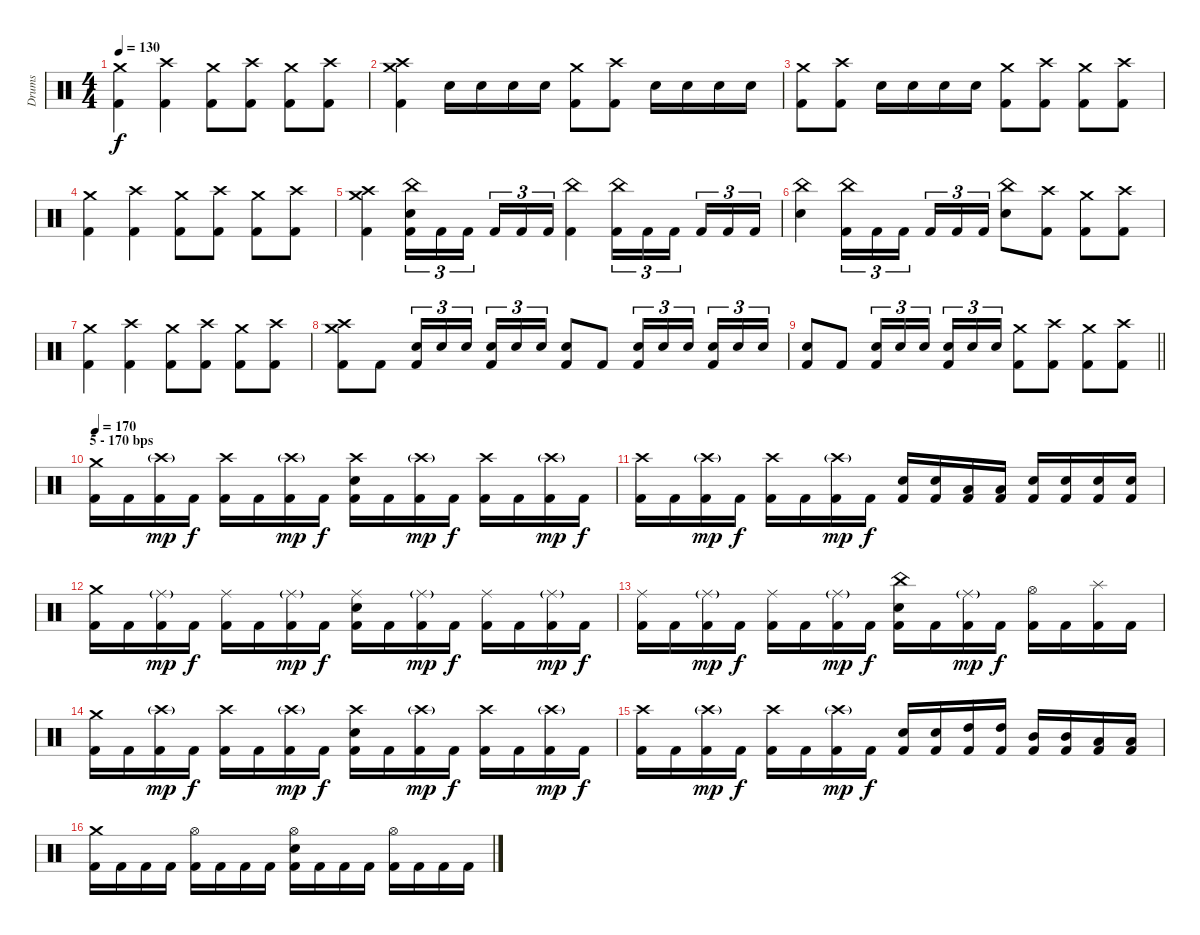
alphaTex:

\track ("Drums" "Drums") {instrument percussion}
\staff {score}
\articulation defaults
\ts (4 4)
\tempo 130
\clef neutral
\ks c
("Crash medium (hit)" "Kick (hit) 2").4{dy f} ("Crash high (hit)" "Kick (hit) 2").4 ("Crash medium (hit)" "Kick (hit) 2").8 ("Crash high (hit)" "Kick (hit) 2").8 ("Crash medium (hit)" "Kick (hit) 2").8 ("Crash high (hit)" "Kick (hit) 2").8 |
("Crash medium (hit)" "Crash high (hit)" "Kick (hit) 2").4 "Snare (hit) 2".16 "Snare (hit) 2".16 "Snare (hit) 2".16 "Snare (hit) 2".16 ("Crash medium (hit)" "Kick (hit) 2").8 ("Crash high (hit)" "Kick (hit) 2").8 "Snare (hit) 2".16 "Snare (hit) 2".16 "Snare (hit) 2".16 "Snare (hit) 2".16 |
("Crash medium (hit)" "Kick (hit) 2").8 ("Crash high (hit)" "Kick (hit) 2").8 "Snare (hit) 2".16 "Snare (hit) 2".16 "Snare (hit) 2".16 "Snare (hit) 2".16 ("Crash medium (hit)" "Kick (hit) 2").8 ("Crash high (hit)" "Kick (hit) 2").8 ("Crash medium (hit)" "Kick (hit) 2").8 ("Crash high (hit)" "Kick (hit) 2").8 |
("Crash medium (hit)" "Kick (hit) 2").4 ("Crash high (hit)" "Kick (hit) 2").4 ("Crash medium (hit)" "Kick (hit) 2").8 ("Crash high (hit)" "Kick (hit) 2").8 ("Crash medium (hit)" "Kick (hit) 2").8 ("Crash high (hit)" "Kick (hit) 2").8 |
("Crash medium (hit)" "Crash high (hit)" "Kick (hit) 2").4 ("China (hit)" "Snare (hit) 2" "Kick (hit) 2").16{tu (3 2)} "Kick (hit) 2".16{tu (3 2)} "Kick (hit) 2".16{tu (3 2) beam splitsecondary} "Kick (hit) 2".16{tu (3 2)} "Kick (hit) 2".16{tu (3 2)} "Kick (hit) 2".16{tu (3 2)} ("China (hit)" "Kick (hit) 2").4 ("China (hit)" "Kick (hit) 2").16{tu (3 2)} "Kick (hit) 2".16{tu (3 2)} "Kick (hit) 2".16{tu (3 2) beam splitsecondary} "Kick (hit) 2".16{tu (3 2)} "Kick (hit) 2".16{tu (3 2)} "Kick (hit) 2".16{tu (3 2)} |
("China (hit)" "Snare (hit) 2").4 ("China (hit)" "Kick (hit) 2").16{tu (3 2)} "Kick (hit) 2".16{tu (3 2)} "Kick (hit) 2".16{tu (3 2) beam splitsecondary} "Kick (hit) 2".16{tu (3 2)} "Kick (hit) 2".16{tu (3 2)} "Kick (hit) 2".16{tu (3 2)} ("China (hit)" "Snare (hit) 2").8 ("Crash high (hit)" "Kick (hit) 2").8 ("Crash medium (hit)" "Kick (hit) 2").8 ("Crash high (hit)" "Kick (hit) 2").8 |
("Crash medium (hit)" "Kick (hit) 2").4 ("Crash high (hit)" "Kick (hit) 2").4 ("Crash medium (hit)" "Kick (hit) 2").8 ("Crash high (hit)" "Kick (hit) 2").8 ("Crash medium (hit)" "Kick (hit) 2").8 ("Crash high (hit)" "Kick (hit) 2").8 |
("Crash medium (hit)" "Crash high (hit)" "Kick (hit) 2").8 "Kick (hit) 2".8 ("Snare (hit) 2" "Kick (hit) 2").16{tu (3 2)} "Snare (hit) 2".16{tu (3 2)} "Snare (hit) 2".16{tu (3 2) beam splitsecondary} ("Snare (hit) 2" "Kick (hit) 2").16{tu (3 2)} "Snare (hit) 2".16{tu (3 2)} "Snare (hit) 2".16{tu (3 2)} ("Snare (hit) 2" "Kick (hit) 2").8 "Kick (hit) 2".8 ("Snare (hit) 2" "Kick (hit) 2").16{tu (3 2)} "Snare (hit) 2".16{tu (3 2)} "Snare (hit) 2".16{tu (3 2) beam splitsecondary} ("Snare (hit) 2" "Kick (hit) 2").16{tu (3 2)} "Snare (hit) 2".16{tu (3 2)} "Snare (hit) 2".16{tu (3 2)} |
\barLineRight lightlight
("Snare (hit) 2" "Kick (hit) 2").8 "Kick (hit) 2".8 ("Snare (hit) 2" "Kick (hit) 2").16{tu (3 2)} "Snare (hit) 2".16{tu (3 2)} "Snare (hit) 2".16{tu (3 2) beam splitsecondary} ("Snare (hit) 2" "Kick (hit) 2").16{tu (3 2)} "Snare (hit) 2".16{tu (3 2)} "Snare (hit) 2".16{tu (3 2)} ("Crash medium (hit)" "Kick (hit) 2").8 ("Crash high (hit)" "Kick (hit) 2").8 ("Crash medium (hit)" "Kick (hit) 2").8 ("Crash high (hit)" "Kick (hit) 2").8 |
\section ("" "5 - 170 bps")
\tempo 170
("Crash medium (hit)" "Kick (hit) 2").16 "Kick (hit) 2".16 ("Crash high (hit)"{g} "Kick (hit) 2").16{dy mp} "Kick (hit) 2".16{dy f} ("Crash high (hit)" "Kick (hit) 2").16 "Kick (hit) 2".16 ("Crash high (hit)"{g} "Kick (hit) 2").16{dy mp} "Kick (hit) 2".16{dy f} ("Crash high (hit)" "Snare (hit) 2" "Kick (hit) 2").16 "Kick (hit) 2".16 ("Crash high (hit)"{g} "Kick (hit) 2").16{dy mp} "Kick (hit) 2".16{dy f} ("Crash high (hit)" "Kick (hit) 2").16 "Kick (hit) 2".16 ("Crash high (hit)"{g} "Kick (hit) 2").16{dy mp} "Kick (hit) 2".16{dy f} |
("Crash high (hit)" "Kick (hit) 2").16 "Kick (hit) 2".16 ("Crash high (hit)"{g} "Kick (hit) 2").16{dy mp} "Kick (hit) 2".16{dy f} ("Crash high (hit)" "Kick (hit) 2").16 "Kick (hit) 2".16 ("Crash high (hit)"{g} "Kick (hit) 2").16{dy mp} "Kick (hit) 2".16{dy f} ("Snare (hit) 2" "Kick (hit) 2").16 ("Snare (hit) 2" "Kick (hit) 2").16 ("Low Tom (hit)" "Kick (hit) 2").16 ("Low Tom (hit)" "Kick (hit) 2").16 ("Snare (hit) 2" "Kick (hit) 2").16 ("Snare (hit) 2" "Kick (hit) 2").16 ("Snare (hit) 2" "Kick (hit) 2").16 ("Snare (hit) 2" "Kick (hit) 2").16 |
("Crash medium (hit)" "Kick (hit) 2").16 "Kick (hit) 2".16 ("Ride (middle)"{g} "Kick (hit) 2").16{dy mp} "Kick (hit) 2".16{dy f} ("Ride (middle)" "Kick (hit) 2").16 "Kick (hit) 2".16 ("Ride (middle)"{g} "Kick (hit) 2").16{dy mp} "Kick (hit) 2".16{dy f} ("Ride (middle)" "Snare (hit) 2" "Kick (hit) 2").16 "Kick (hit) 2".16 ("Ride (middle)"{g} "Kick (hit) 2").16{dy mp} "Kick (hit) 2".16{dy f} ("Ride (middle)" "Kick (hit) 2").16 "Kick (hit) 2".16 ("Ride (middle)"{g} "Kick (hit) 2").16{dy mp} "Kick (hit) 2".16{dy f} |
("Ride (middle)" "Kick (hit) 2").16 "Kick (hit) 2".16 ("Ride (middle)"{g} "Kick (hit) 2").16{dy mp} "Kick (hit) 2".16{dy f} ("Ride (middle)" "Kick (hit) 2").16 "Kick (hit) 2".16 ("Ride (middle)"{g} "Kick (hit) 2").16{dy mp} "Kick (hit) 2".16{dy f} ("China (hit)" "Snare (hit) 2" "Kick (hit) 2").16 "Kick (hit) 2".16 ("Ride (middle)"{g} "Kick (hit) 2").16{dy mp} "Kick (hit) 2".16{dy f} ("Hi-Hat (open)" "Kick (hit) 2").16 "Kick (hit) 2".16 ("Splash (hit)" "Kick (hit) 2").16 "Kick (hit) 2".16 |
("Crash medium (hit)" "Kick (hit) 2").16 "Kick (hit) 2".16 ("Crash high (hit)"{g} "Kick (hit) 2").16{dy mp} "Kick (hit) 2".16{dy f} ("Crash high (hit)" "Kick (hit) 2").16 "Kick (hit) 2".16 ("Crash high (hit)"{g} "Kick (hit) 2").16{dy mp} "Kick (hit) 2".16{dy f} ("Crash high (hit)" "Snare (hit) 2" "Kick (hit) 2").16 "Kick (hit) 2".16 ("Crash high (hit)"{g} "Kick (hit) 2").16{dy mp} "Kick (hit) 2".16{dy f} ("Crash high (hit)" "Kick (hit) 2").16 "Kick (hit) 2".16 ("Crash high (hit)"{g} "Kick (hit) 2").16{dy mp} "Kick (hit) 2".16{dy f} |
("Crash high (hit)" "Kick (hit) 2").16 "Kick (hit) 2".16 ("Crash high (hit)"{g} "Kick (hit) 2").16{dy mp} "Kick (hit) 2".16{dy f} ("Crash high (hit)" "Kick (hit) 2").16 "Kick (hit) 2".16 ("Crash high (hit)"{g} "Kick (hit) 2").16{dy mp} "Kick (hit) 2".16{dy f} ("Snare (hit) 2" "Kick (hit) 2").16 ("Snare (hit) 2" "Kick (hit) 2").16 ("High Tom (hit)" "Kick (hit) 2").16 ("High Tom (hit)" "Kick (hit) 2").16 ("Mid Tom (hit)" "Kick (hit) 2").16 ("Mid Tom (hit)" "Kick (hit) 2").16 ("Low Tom (hit)" "Kick (hit) 2").16 ("Low Tom (hit)" "Kick (hit) 2").16 |
("Crash medium (hit)" "Kick (hit) 2").16 "Kick (hit) 2".16 "Kick (hit) 2".16 "Kick (hit) 2".16 ("Hi-Hat (open)" "Kick (hit) 2").16 "Kick (hit) 2".16 "Kick (hit) 2".16 "Kick (hit) 2".16 ("Hi-Hat (open)" "Snare (hit) 2" "Kick (hit) 2").16 "Kick (hit) 2".16 "Kick (hit) 2".16 "Kick (hit) 2".16 ("Hi-Hat (open)" "Kick (hit) 2").16 "Kick (hit) 2".16 "Kick (hit) 2".16 "Kick (hit) 2".16
